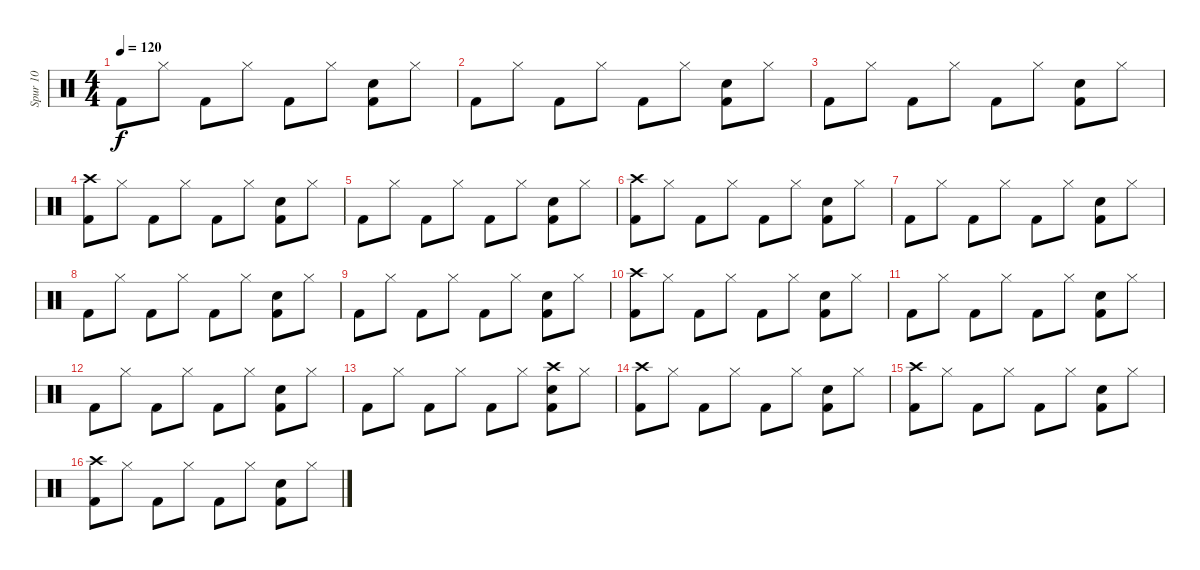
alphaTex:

\track ("Spur 10" "Spur 10") {instrument percussion}
\staff {score}
\articulation defaults
\ts (4 4)
\tempo 120
\clef neutral
\ks c "Kick (hit) 2".8{dy f} "Hi-Hat (closed)".8 "Kick (hit) 2".8 "Hi-Hat (closed)".8 "Kick (hit) 2".8 "Hi-Hat (closed)".8
("Kick (hit) 2" "Hand Clap (hit)").8 "Hi-Hat (closed)".8 |
"Kick (hit) 2".8 "Hi-Hat (closed)".8 "Kick (hit) 2".8 "Hi-Hat (closed)".8 "Kick (hit) 2".8 "Hi-Hat (closed)".8 ("Kick (hit) 2" "Hand Clap (hit)").8 "Hi-Hat (closed)".8 |
"Kick (hit) 2".8 "Hi-Hat (closed)".8 "Kick (hit) 2".8 "Hi-Hat (closed)".8 "Kick (hit) 2".8 "Hi-Hat (closed)".8 ("Kick (hit) 2" "Hand Clap (hit)").8 "Hi-Hat (closed)".8 |
("Kick (hit) 2" "Crash high (hit)").8 "Hi-Hat (closed)".8 "Kick (hit) 2".8 "Hi-Hat (closed)".8 "Kick (hit) 2".8 "Hi-Hat (closed)".8 ("Kick (hit) 2" "Hand Clap (hit)").8 "Hi-Hat (closed)".8 |
"Kick (hit) 2".8 "Hi-Hat (closed)".8 "Kick (hit) 2".8 "Hi-Hat (closed)".8 "Kick (hit) 2".8 "Hi-Hat (closed)".8 ("Kick (hit) 2" "Hand Clap (hit)").8 "Hi-Hat (closed)".8 |
("Crash high (hit)" "Kick (hit) 2").8 "Hi-Hat (closed)".8 "Kick (hit) 2".8 "Hi-Hat (closed)".8 "Kick (hit) 2".8 "Hi-Hat (closed)".8 ("Kick (hit) 2" "Hand Clap (hit)").8 "Hi-Hat (closed)".8 |
"Kick (hit) 2".8 "Hi-Hat (closed)".8 "Kick (hit) 2".8 "Hi-Hat (closed)".8 "Kick (hit) 2".8 "Hi-Hat (closed)".8 ("Kick (hit) 2" "Hand Clap (hit)").8 "Hi-Hat (closed)".8 |
"Kick (hit) 2".8 "Hi-Hat (closed)".8 "Kick (hit) 2".8 "Hi-Hat (closed)".8 "Kick (hit) 2".8 "Hi-Hat (closed)".8 ("Kick (hit) 2" "Hand Clap (hit)").8 "Hi-Hat (closed)".8 |
"Kick (hit) 2".8 "Hi-Hat (closed)".8 "Kick (hit) 2".8 "Hi-Hat (closed)".8 "Kick (hit) 2".8 "Hi-Hat (closed)".8 ("Kick (hit) 2" "Hand Clap (hit)").8 "Hi-Hat (closed)".8 |
("Kick (hit) 2" "Crash high (hit)").8 "Hi-Hat (closed)".8 "Kick (hit) 2".8 "Hi-Hat (closed)".8 "Kick (hit) 2".8 "Hi-Hat (closed)".8 ("Kick (hit) 2" "Hand Clap (hit)").8 "Hi-Hat (closed)".8 |
"Kick (hit) 2".8 "Hi-Hat (closed)".8 "Kick (hit) 2".8 "Hi-Hat (closed)".8 "Kick (hit) 2".8 "Hi-Hat (closed)".8 ("Kick (hit) 2" "Hand Clap (hit)").8 "Hi-Hat (closed)".8 |
"Kick (hit) 2".8 "Hi-Hat (closed)".8 "Kick (hit) 2".8 "Hi-Hat (closed)".8 "Kick (hit) 2".8 "Hi-Hat (closed)".8 ("Kick (hit) 2" "Hand Clap (hit)").8 "Hi-Hat (closed)".8 |
"Kick (hit) 2".8 "Hi-Hat (closed)".8 "Kick (hit) 2".8 "Hi-Hat (closed)".8 "Kick (hit) 2".8 "Hi-Hat (closed)".8 ("Kick (hit) 2" "Hand Clap (hit)" "Crash high (hit)").8 "Hi-Hat (closed)".8 |
("Kick (hit) 2" "Crash high (hit)").8 "Hi-Hat (closed)".8 "Kick (hit) 2".8 "Hi-Hat (closed)".8 "Kick (hit) 2".8 "Hi-Hat (closed)".8 ("Kick (hit) 2" "Hand Clap (hit)").8 "Hi-Hat (closed)".8 |
("Kick (hit) 2" "Crash high (hit)").8 "Hi-Hat (closed)".8 "Kick (hit) 2".8 "Hi-Hat (closed)".8 "Kick (hit) 2".8 "Hi-Hat (closed)".8 ("Kick (hit) 2" "Hand Clap (hit)").8 "Hi-Hat (closed)".8 |
("Kick (hit) 2" "Crash high (hit)").8 "Hi-Hat (closed)".8 "Kick (hit) 2".8 "Hi-Hat (closed)".8 "Kick (hit) 2".8 "Hi-Hat (closed)".8 ("Kick (hit) 2" "Hand Clap (hit)").8 "Hi-Hat (closed)".8
